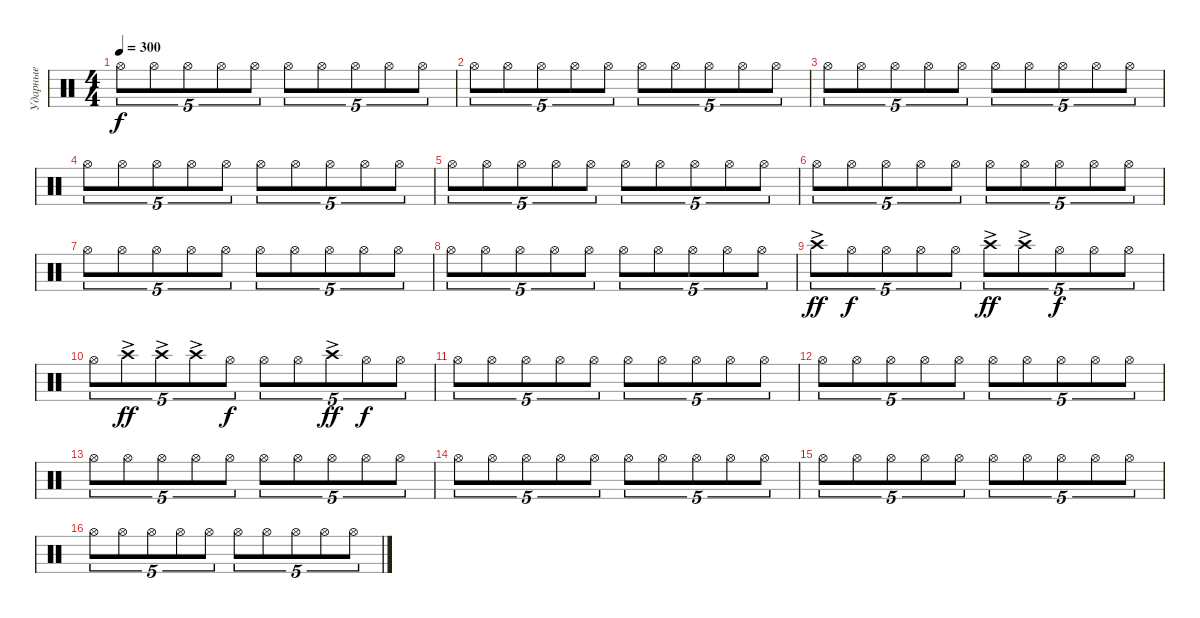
\track ("Ударные" "Ударные") {instrument percussion}
\staff {score}
\articulation defaults
\ts (4 4)
\tempo 300
\clef neutral
\ks c "Hi-Hat (open)".8{tu (5 4) dy f} "Hi-Hat (open)".8{tu (5 4)} "Hi-Hat (open)".8{tu (5 4)} "Hi-Hat (open)".8{tu (5 4)} "Hi-Hat (open)".8{tu (5 4)} "Hi-Hat (open)".8{tu (5 4)} "Hi-Hat (open)".8{tu (5 4)} "Hi-Hat (open)".8{tu (5 4)} "Hi-Hat (open)".8{tu (5 4)} "Hi-Hat (open)".8{tu (5 4)}
|
"Hi-Hat (open)".8{tu (5 4)} "Hi-Hat (open)".8{tu (5 4)} "Hi-Hat (open)".8{tu (5 4)} "Hi-Hat (open)".8{tu (5 4)} "Hi-Hat (open)".8{tu (5 4)} "Hi-Hat (open)".8{tu (5 4)} "Hi-Hat (open)".8{tu (5 4)} "Hi-Hat (open)".8{tu (5 4)} "Hi-Hat (open)".8{tu (5 4)} "Hi-Hat (open)".8{tu (5 4)} |
"Hi-Hat (open)".8{tu (5 4)} "Hi-Hat (open)".8{tu (5 4)} "Hi-Hat (open)".8{tu (5 4)} "Hi-Hat (open)".8{tu (5 4)} "Hi-Hat (open)".8{tu (5 4)} "Hi-Hat (open)".8{tu (5 4)} "Hi-Hat (open)".8{tu (5 4)} "Hi-Hat (open)".8{tu (5 4)} "Hi-Hat (open)".8{tu (5 4)} "Hi-Hat (open)".8{tu (5 4)} |
"Hi-Hat (open)".8{tu (5 4)} "Hi-Hat (open)".8{tu (5 4)} "Hi-Hat (open)".8{tu (5 4)} "Hi-Hat (open)".8{tu (5 4)} "Hi-Hat (open)".8{tu (5 4)} "Hi-Hat (open)".8{tu (5 4)} "Hi-Hat (open)".8{tu (5 4)} "Hi-Hat (open)".8{tu (5 4)} "Hi-Hat (open)".8{tu (5 4)} "Hi-Hat (open)".8{tu (5 4)} |
"Hi-Hat (open)".8{tu (5 4)} "Hi-Hat (open)".8{tu (5 4)} "Hi-Hat (open)".8{tu (5 4)} "Hi-Hat (open)".8{tu (5 4)} "Hi-Hat (open)".8{tu (5 4)} "Hi-Hat (open)".8{tu (5 4)} "Hi-Hat (open)".8{tu (5 4)} "Hi-Hat (open)".8{tu (5 4)} "Hi-Hat (open)".8{tu (5 4)} "Hi-Hat (open)".8{tu (5 4)} |
"Hi-Hat (open)".8{tu (5 4)} "Hi-Hat (open)".8{tu (5 4)} "Hi-Hat (open)".8{tu (5 4)} "Hi-Hat (open)".8{tu (5 4)} "Hi-Hat (open)".8{tu (5 4)} "Hi-Hat (open)".8{tu (5 4)} "Hi-Hat (open)".8{tu (5 4)} "Hi-Hat (open)".8{tu (5 4)} "Hi-Hat (open)".8{tu (5 4)} "Hi-Hat (open)".8{tu (5 4)} |
"Hi-Hat (open)".8{tu (5 4)} "Hi-Hat (open)".8{tu (5 4)} "Hi-Hat (open)".8{tu (5 4)} "Hi-Hat (open)".8{tu (5 4)} "Hi-Hat (open)".8{tu (5 4)} "Hi-Hat (open)".8{tu (5 4)} "Hi-Hat (open)".8{tu (5 4)} "Hi-Hat (open)".8{tu (5 4)} "Hi-Hat (open)".8{tu (5 4)} "Hi-Hat (open)".8{tu (5 4)} |
"Hi-Hat (open)".8{tu (5 4)} "Hi-Hat (open)".8{tu (5 4)} "Hi-Hat (open)".8{tu (5 4)} "Hi-Hat (open)".8{tu (5 4)} "Hi-Hat (open)".8{tu (5 4)} "Hi-Hat (open)".8{tu (5 4)} "Hi-Hat (open)".8{tu (5 4)} "Hi-Hat (open)".8{tu (5 4)} "Hi-Hat (open)".8{tu (5 4)} "Hi-Hat (open)".8{tu (5 4)} |
"Crash high (hit)"{ac}.8{tu (5 4) dy ff} "Hi-Hat (open)".8{tu (5 4) dy f} "Hi-Hat (open)".8{tu (5 4)} "Hi-Hat (open)".8{tu (5 4)} "Hi-Hat (open)".8{tu (5 4)} "Crash high (hit)"{ac}.8{tu (5 4) dy ff} "Crash high (hit)"{ac}.8{tu (5 4)} "Hi-Hat (open)".8{tu (5 4) dy f} "Hi-Hat (open)".8{tu (5 4)} "Hi-Hat (open)".8{tu (5 4)} |
"Hi-Hat (open)".8{tu (5 4)} "Crash high (hit)"{ac}.8{tu (5 4) dy ff} "Crash high (hit)"{ac}.8{tu (5 4)} "Crash high (hit)"{ac}.8{tu (5 4)} "Hi-Hat (open)".8{tu (5 4) dy f} "Hi-Hat (open)".8{tu (5 4)} "Hi-Hat (open)".8{tu (5 4)} "Crash high (hit)"{ac}.8{tu (5 4) dy ff} "Hi-Hat (open)".8{tu (5 4) dy f} "Hi-Hat (open)".8{tu (5 4)} |
"Hi-Hat (open)".8{tu (5 4)} "Hi-Hat (open)".8{tu (5 4)} "Hi-Hat (open)".8{tu (5 4)} "Hi-Hat (open)".8{tu (5 4)} "Hi-Hat (open)".8{tu (5 4)} "Hi-Hat (open)".8{tu (5 4)} "Hi-Hat (open)".8{tu (5 4)} "Hi-Hat (open)".8{tu (5 4)} "Hi-Hat (open)".8{tu (5 4)} "Hi-Hat (open)".8{tu (5 4)} |
"Hi-Hat (open)".8{tu (5 4)} "Hi-Hat (open)".8{tu (5 4)} "Hi-Hat (open)".8{tu (5 4)} "Hi-Hat (open)".8{tu (5 4)} "Hi-Hat (open)".8{tu (5 4)} "Hi-Hat (open)".8{tu (5 4)} "Hi-Hat (open)".8{tu (5 4)} "Hi-Hat (open)".8{tu (5 4)} "Hi-Hat (open)".8{tu (5 4)} "Hi-Hat (open)".8{tu (5 4)} |
"Hi-Hat (open)".8{tu (5 4)} "Hi-Hat (open)".8{tu (5 4)} "Hi-Hat (open)".8{tu (5 4)} "Hi-Hat (open)".8{tu (5 4)} "Hi-Hat (open)".8{tu (5 4)} "Hi-Hat (open)".8{tu (5 4)} "Hi-Hat (open)".8{tu (5 4)} "Hi-Hat (open)".8{tu (5 4)} "Hi-Hat (open)".8{tu (5 4)} "Hi-Hat (open)".8{tu (5 4)} |
"Hi-Hat (open)".8{tu (5 4)} "Hi-Hat (open)".8{tu (5 4)} "Hi-Hat (open)".8{tu (5 4)} "Hi-Hat (open)".8{tu (5 4)} "Hi-Hat (open)".8{tu (5 4)} "Hi-Hat (open)".8{tu (5 4)} "Hi-Hat (open)".8{tu (5 4)} "Hi-Hat (open)".8{tu (5 4)} "Hi-Hat (open)".8{tu (5 4)} "Hi-Hat (open)".8{tu (5 4)} |
"Hi-Hat (open)".8{tu (5 4)} "Hi-Hat (open)".8{tu (5 4)} "Hi-Hat (open)".8{tu (5 4)} "Hi-Hat (open)".8{tu (5 4)} "Hi-Hat (open)".8{tu (5 4)} "Hi-Hat (open)".8{tu (5 4)} "Hi-Hat (open)".8{tu (5 4)} "Hi-Hat (open)".8{tu (5 4)} "Hi-Hat (open)".8{tu (5 4)} "Hi-Hat (open)".8{tu (5 4)} |
"Hi-Hat (open)".8{tu (5 4)} "Hi-Hat (open)".8{tu (5 4)} "Hi-Hat (open)".8{tu (5 4)} "Hi-Hat (open)".8{tu (5 4)} "Hi-Hat (open)".8{tu (5 4)} "Hi-Hat (open)".8{tu (5 4)} "Hi-Hat (open)".8{tu (5 4)} "Hi-Hat (open)".8{tu (5 4)} "Hi-Hat (open)".8{tu (5 4)} "Hi-Hat (open)".8{tu (5 4)}
